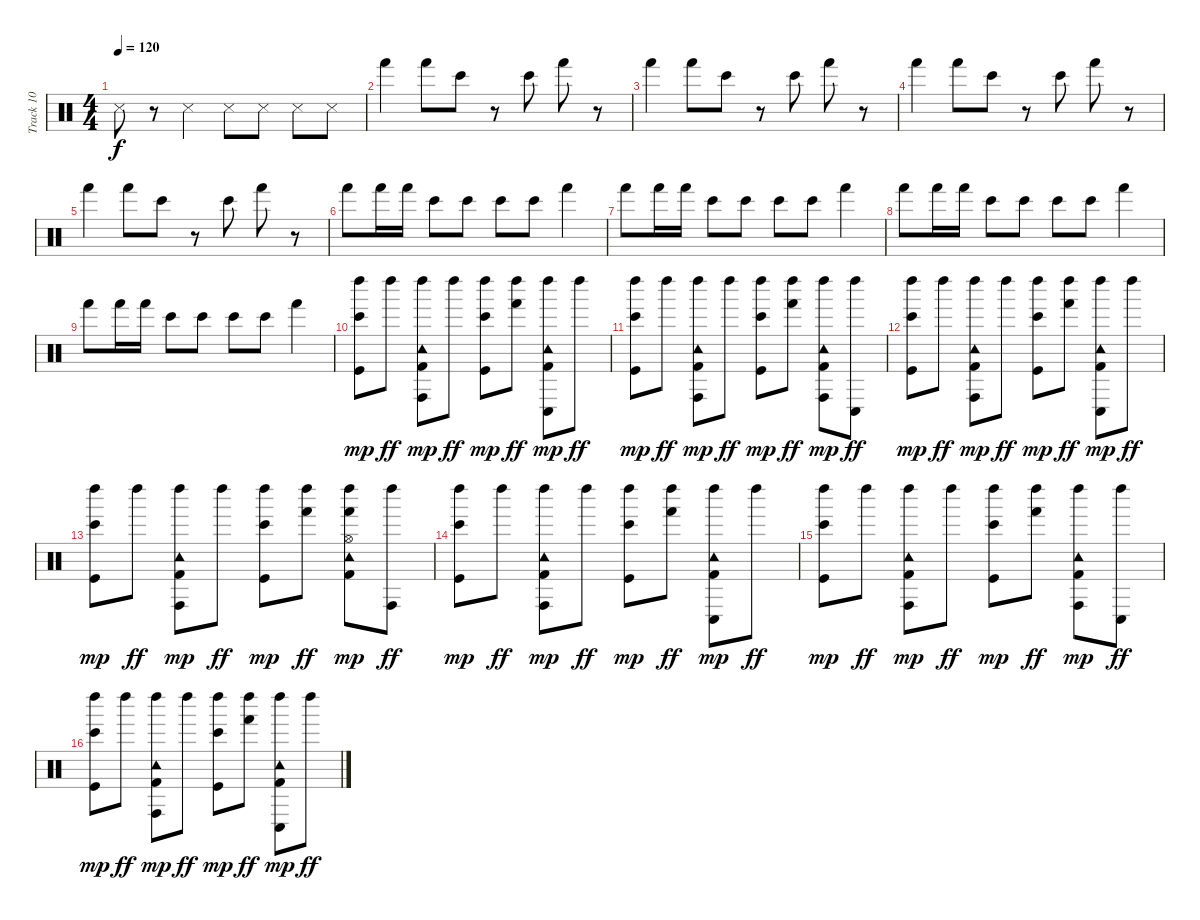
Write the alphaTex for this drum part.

\track ("Track 10" "Track 10") {instrument percussion}
\staff {score}
\articulation defaults
\ts (4 4)
\tempo 120
\clef neutral
\ks c "Snare (side stick) 3".8{dy f}
r.8 "Snare (side stick) 3".4 "Snare (side stick) 3".8 "Snare (side stick) 3".8 "Snare (side stick) 3".8 "Snare (side stick) 3".8 |
"Hand (hit)".4 "Hand (hit)".8 "Bongo High (hit)".8 r.8 "Bongo High (hit)".8 "Hand (hit)".8 r.8 |
"Hand (hit)".4 "Hand (hit)".8 "Bongo High (hit)".8 r.8 "Bongo High (hit)".8 "Hand (hit)".8 r.8 |
"Hand (hit)".4 "Hand (hit)".8 "Bongo High (hit)".8 r.8 "Bongo High (hit)".8 "Hand (hit)".8 r.8 |
"Hand (hit)".4 "Hand (hit)".8 "Bongo High (hit)".8 r.8 "Bongo High (hit)".8 "Hand (hit)".8 r.8 |
"Hand (hit)".8 "Hand (hit)".16 "Hand (hit)".16 "Bongo High (hit)".8 "Bongo High (hit)".8 "Bongo High (hit)".8 "Bongo High (hit)".8 "Hand (hit)".4 |
"Hand (hit)".8 "Hand (hit)".16 "Hand (hit)".16 "Bongo High (hit)".8 "Bongo High (hit)".8 "Bongo High (hit)".8 "Bongo High (hit)".8 "Hand (hit)".4 |
"Hand (hit)".8 "Hand (hit)".16 "Hand (hit)".16 "Bongo High (hit)".8 "Bongo High (hit)".8 "Bongo High (hit)".8 "Bongo High (hit)".8 "Hand (hit)".4 |
"Hand (hit)".8 "Hand (hit)".16 "Hand (hit)".16 "Bongo High (hit)".8 "Bongo High (hit)".8 "Bongo High (hit)".8 "Bongo High (hit)".8 "Hand (hit)".4 |
("Bongo High (hit)" "Left Maraca (hit)" "Kick (hit)").8{dy mp} "Left Maraca (hit)".8{dy ff} ("Conga high (hit)" "Tambourine (hit)" "Left Maraca (hit)" "Kick (hit) 2").8{dy mp} "Left Maraca (hit)".8{dy ff} ("Bongo High (hit)" "Left Maraca (hit)" "Kick (hit)").8{dy mp} ("Hand (hit)" "Left Maraca (hit)").8{dy ff} ("Conga low (hit)" "Tambourine (hit)" "Left Maraca (hit)" "Kick (hit) 2").8{dy mp} "Left Maraca (hit)".8{dy ff} |
("Bongo High (hit)" "Left Maraca (hit)" "Kick (hit)").8{dy mp} "Left Maraca (hit)".8{dy ff} ("Conga high (hit)" "Tambourine (hit)" "Left Maraca (hit)" "Kick (hit) 2").8{dy mp} "Left Maraca (hit)".8{dy ff} ("Bongo High (hit)" "Left Maraca (hit)" "Kick (hit)").8{dy mp} ("Hand (hit)" "Left Maraca (hit)").8{dy ff} ("Conga high (hit)" "Tambourine (hit)" "Left Maraca (hit)" "Kick (hit) 2").8{dy mp} ("Conga low (hit)" "Left Maraca (hit)").8{dy ff} |
("Bongo High (hit)" "Left Maraca (hit)" "Kick (hit)").8{dy mp} "Left Maraca (hit)".8{dy ff} ("Conga high (hit)" "Tambourine (hit)" "Left Maraca (hit)" "Kick (hit) 2").8{dy mp} "Left Maraca (hit)".8{dy ff} ("Bongo High (hit)" "Left Maraca (hit)" "Kick (hit)").8{dy mp} ("Hand (hit)" "Left Maraca (hit)").8{dy ff} ("Conga low (hit)" "Tambourine (hit)" "Left Maraca (hit)" "Kick (hit) 2").8{dy mp} "Left Maraca (hit)".8{dy ff} |
("Bongo High (hit)" "Left Maraca (hit)" "Kick (hit)").8{dy mp} "Left Maraca (hit)".8{dy ff} ("Conga high (hit)" "Tambourine (hit)" "Left Maraca (hit)" "Kick (hit) 2").8{dy mp} "Left Maraca (hit)".8{dy ff} ("Bongo High (hit)" "Left Maraca (hit)" "Kick (hit)").8{dy mp} ("Hand (hit)" "Left Maraca (hit)").8{dy ff} ("Hand (hit)" "Hi-Hat (open)" "Tambourine (hit)" "Left Maraca (hit)" "Kick (hit) 2").8{dy mp} ("Conga high (hit)" "Left Maraca (hit)").8{dy ff} |
("Bongo High (hit)" "Left Maraca (hit)" "Kick (hit)").8{dy mp} "Left Maraca (hit)".8{dy ff} ("Conga high (hit)" "Tambourine (hit)" "Left Maraca (hit)" "Kick (hit) 2").8{dy mp} "Left Maraca (hit)".8{dy ff} ("Bongo High (hit)" "Left Maraca (hit)" "Kick (hit)").8{dy mp} ("Hand (hit)" "Left Maraca (hit)").8{dy ff} ("Conga low (hit)" "Tambourine (hit)" "Left Maraca (hit)" "Kick (hit) 2").8{dy mp} "Left Maraca (hit)".8{dy ff} |
("Bongo High (hit)" "Left Maraca (hit)" "Kick (hit)").8{dy mp} "Left Maraca (hit)".8{dy ff} ("Conga high (hit)" "Tambourine (hit)" "Left Maraca (hit)" "Kick (hit) 2").8{dy mp} "Left Maraca (hit)".8{dy ff} ("Bongo High (hit)" "Left Maraca (hit)" "Kick (hit)").8{dy mp} ("Hand (hit)" "Left Maraca (hit)").8{dy ff} ("Conga high (hit)" "Tambourine (hit)" "Left Maraca (hit)" "Kick (hit) 2").8{dy mp} ("Conga low (hit)" "Left Maraca (hit)").8{dy ff} |
("Bongo High (hit)" "Left Maraca (hit)" "Kick (hit)").8{dy mp} "Left Maraca (hit)".8{dy ff} ("Conga high (hit)" "Tambourine (hit)" "Left Maraca (hit)" "Kick (hit) 2").8{dy mp} "Left Maraca (hit)".8{dy ff} ("Bongo High (hit)" "Left Maraca (hit)" "Kick (hit)").8{dy mp} ("Hand (hit)" "Left Maraca (hit)").8{dy ff} ("Conga low (hit)" "Tambourine (hit)" "Left Maraca (hit)" "Kick (hit) 2").8{dy mp} "Left Maraca (hit)".8{dy ff}
